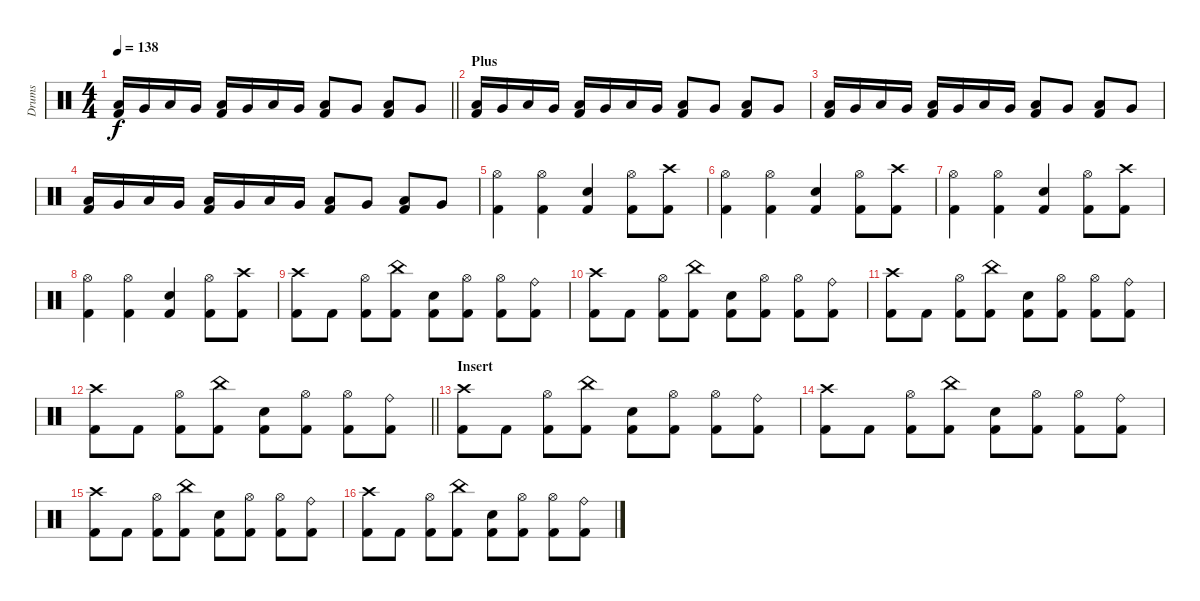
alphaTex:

\track ("Drums" "Drums") {instrument percussion}
\staff {score}
\articulation defaults
\ts (4 4)
\tempo 138
\clef neutral
\barLineRight lightlight
\ks c
("Low Floor Tom (hit)" "Kick (hit) 2").16{dy f} "Very Low Tom (hit)".16 "Low Floor Tom (hit)".16 "Very Low Tom (hit)".16 ("Low Floor Tom (hit)" "Kick (hit) 2").16 "Very Low Tom (hit)".16 "Low Floor Tom (hit)".16 "Very Low Tom (hit)".16 ("Low Floor Tom (hit)" "Kick (hit) 2").8 "Very Low Tom (hit)".8 ("Low Floor Tom (hit)" "Kick (hit) 2").8 "Very Low Tom (hit)".8 |
\section ("" "Plus")
("Low Floor Tom (hit)" "Kick (hit) 2").16 "Very Low Tom (hit)".16 "Low Floor Tom (hit)".16 "Very Low Tom (hit)".16 ("Low Floor Tom (hit)" "Kick (hit) 2").16 "Very Low Tom (hit)".16 "Low Floor Tom (hit)".16 "Very Low Tom (hit)".16 ("Low Floor Tom (hit)" "Kick (hit) 2").8 "Very Low Tom (hit)".8 ("Low Floor Tom (hit)" "Kick (hit) 2").8 "Very Low Tom (hit)".8 |
("Low Floor Tom (hit)" "Kick (hit) 2").16 "Very Low Tom (hit)".16 "Low Floor Tom (hit)".16 "Very Low Tom (hit)".16 ("Low Floor Tom (hit)" "Kick (hit) 2").16 "Very Low Tom (hit)".16 "Low Floor Tom (hit)".16 "Very Low Tom (hit)".16 ("Low Floor Tom (hit)" "Kick (hit) 2").8 "Very Low Tom (hit)".8 ("Low Floor Tom (hit)" "Kick (hit) 2").8 "Very Low Tom (hit)".8 |
("Low Floor Tom (hit)" "Kick (hit) 2").16 "Very Low Tom (hit)".16 "Low Floor Tom (hit)".16 "Very Low Tom (hit)".16 ("Low Floor Tom (hit)" "Kick (hit) 2").16 "Very Low Tom (hit)".16 "Low Floor Tom (hit)".16 "Very Low Tom (hit)".16 ("Low Floor Tom (hit)" "Kick (hit) 2").8 "Very Low Tom (hit)".8 ("Low Floor Tom (hit)" "Kick (hit) 2").8 "Very Low Tom (hit)".8 |
("Hi-Hat (open)" "Kick (hit) 2").4 ("Hi-Hat (open)" "Kick (hit) 2").4 ("Electric Snare (hit)" "Kick (hit) 2").4 ("Hi-Hat (open)" "Kick (hit) 2").8 ("Crash high (hit)" "Kick (hit) 2").8 |
("Hi-Hat (open)" "Kick (hit) 2").4 ("Hi-Hat (open)" "Kick (hit) 2").4 ("Electric Snare (hit)" "Kick (hit) 2").4 ("Hi-Hat (open)" "Kick (hit) 2").8 ("Crash high (hit)" "Kick (hit) 2").8 |
("Hi-Hat (open)" "Kick (hit) 2").4 ("Hi-Hat (open)" "Kick (hit) 2").4 ("Electric Snare (hit)" "Kick (hit) 2").4 ("Hi-Hat (open)" "Kick (hit) 2").8 ("Crash high (hit)" "Kick (hit) 2").8 |
("Hi-Hat (open)" "Kick (hit) 2").4 ("Hi-Hat (open)" "Kick (hit) 2").4 ("Electric Snare (hit)" "Kick (hit) 2").4 ("Hi-Hat (open)" "Kick (hit) 2").8 ("Crash high (hit)" "Kick (hit) 2").8 |
("Crash high (hit)" "Kick (hit) 2").8 "Kick (hit) 2".8 ("Hi-Hat (open)" "Kick (hit) 2").8 ("China (hit)" "Kick (hit) 2").8 ("Electric Snare (hit)" "Kick (hit) 2").8 ("Hi-Hat (open)" "Kick (hit) 2").8 ("Hi-Hat (open)" "Kick (hit) 2").8 ("Ride (bell)" "Kick (hit) 2").8 |
("Crash high (hit)" "Kick (hit) 2").8 "Kick (hit) 2".8 ("Hi-Hat (open)" "Kick (hit) 2").8 ("China (hit)" "Kick (hit) 2").8 ("Electric Snare (hit)" "Kick (hit) 2").8 ("Hi-Hat (open)" "Kick (hit) 2").8 ("Hi-Hat (open)" "Kick (hit) 2").8 ("Ride (bell)" "Kick (hit) 2").8 |
("Crash high (hit)" "Kick (hit) 2").8 "Kick (hit) 2".8 ("Hi-Hat (open)" "Kick (hit) 2").8 ("China (hit)" "Kick (hit) 2").8 ("Electric Snare (hit)" "Kick (hit) 2").8 ("Hi-Hat (open)" "Kick (hit) 2").8 ("Hi-Hat (open)" "Kick (hit) 2").8 ("Ride (bell)" "Kick (hit) 2").8 |
\barLineRight lightlight
("Crash high (hit)" "Kick (hit) 2").8 "Kick (hit) 2".8 ("Hi-Hat (open)" "Kick (hit) 2").8 ("China (hit)" "Kick (hit) 2").8 ("Electric Snare (hit)" "Kick (hit) 2").8 ("Hi-Hat (open)" "Kick (hit) 2").8 ("Hi-Hat (open)" "Kick (hit) 2").8 ("Ride (bell)" "Kick (hit) 2").8 |
\section ("" "Insert")
("Crash high (hit)" "Kick (hit) 2").8 "Kick (hit) 2".8 ("Hi-Hat (open)" "Kick (hit) 2").8 ("China (hit)" "Kick (hit) 2").8 ("Electric Snare (hit)" "Kick (hit) 2").8 ("Hi-Hat (open)" "Kick (hit) 2").8 ("Hi-Hat (open)" "Kick (hit) 2").8 ("Ride (bell)" "Kick (hit) 2").8 |
("Crash high (hit)" "Kick (hit) 2").8 "Kick (hit) 2".8 ("Hi-Hat (open)" "Kick (hit) 2").8 ("China (hit)" "Kick (hit) 2").8 ("Electric Snare (hit)" "Kick (hit) 2").8 ("Hi-Hat (open)" "Kick (hit) 2").8 ("Hi-Hat (open)" "Kick (hit) 2").8 ("Ride (bell)" "Kick (hit) 2").8 |
("Crash high (hit)" "Kick (hit) 2").8 "Kick (hit) 2".8 ("Hi-Hat (open)" "Kick (hit) 2").8 ("China (hit)" "Kick (hit) 2").8 ("Electric Snare (hit)" "Kick (hit) 2").8 ("Hi-Hat (open)" "Kick (hit) 2").8 ("Hi-Hat (open)" "Kick (hit) 2").8 ("Ride (bell)" "Kick (hit) 2").8 |
("Crash high (hit)" "Kick (hit) 2").8 "Kick (hit) 2".8 ("Hi-Hat (open)" "Kick (hit) 2").8 ("China (hit)" "Kick (hit) 2").8 ("Electric Snare (hit)" "Kick (hit) 2").8 ("Hi-Hat (open)" "Kick (hit) 2").8 ("Hi-Hat (open)" "Kick (hit) 2").8 ("Ride (bell)" "Kick (hit) 2").8
